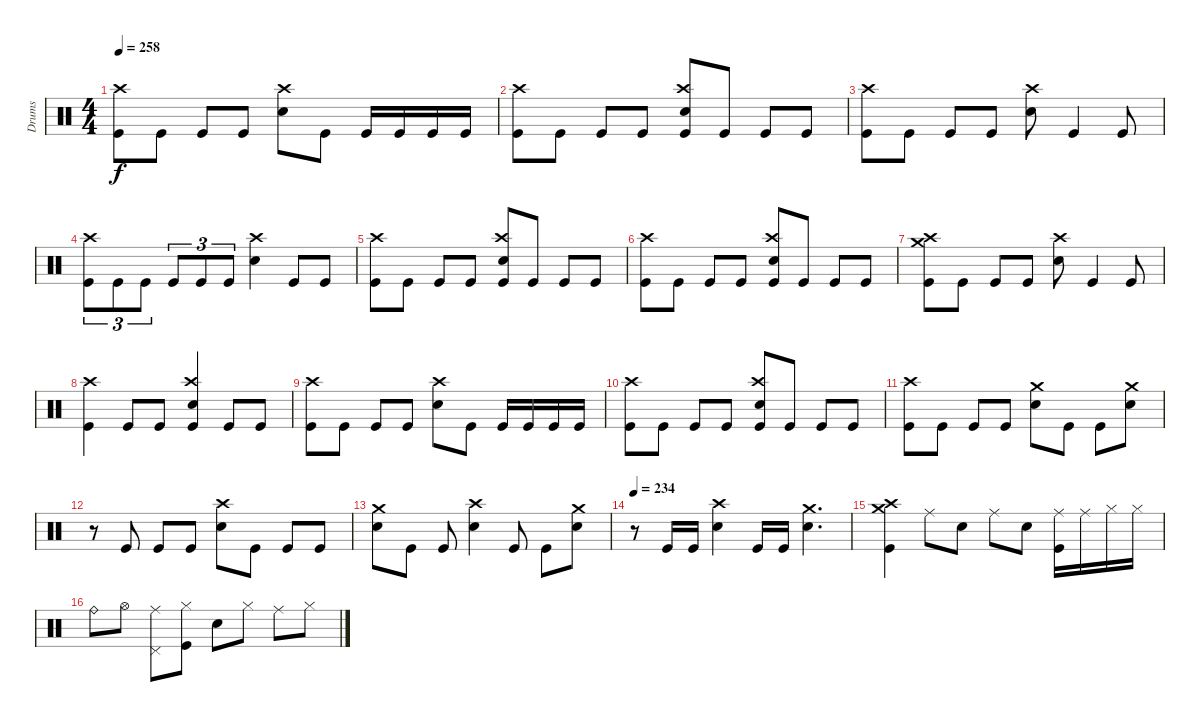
\track ("Drums" "Drums") {instrument percussion}
\staff {score}
\articulation defaults
\ts (4 4)
\tempo 258
\clef neutral
\ks c
("Kick (hit)" "Crash high (hit)").8{dy f} "Kick (hit)".8 "Kick (hit)".8 "Kick (hit)".8 ("Snare (hit) 2" "Crash high (hit)").8 "Kick (hit)".8 "Kick (hit)".16 "Kick (hit)".16 "Kick (hit)".16 "Kick (hit)".16 |
("Kick (hit)" "Crash high (hit)").8 "Kick (hit)".8 "Kick (hit)".8 "Kick (hit)".8 ("Snare (hit) 2" "Kick (hit)" "Crash high (hit)").8 "Kick (hit)".8 "Kick (hit)".8 "Kick (hit)".8 |
("Kick (hit)" "Crash high (hit)").8 "Kick (hit)".8 "Kick (hit)".8 "Kick (hit)".8 ("Snare (hit) 2" "Crash high (hit)").8 "Kick (hit)".4 "Kick (hit)".8 |
("Kick (hit)" "Crash high (hit)").8{tu (3 2)} "Kick (hit)".8{tu (3 2)} "Kick (hit)".8{tu (3 2)} "Kick (hit)".8{tu (3 2)} "Kick (hit)".8{tu (3 2)} "Kick (hit)".8{tu (3 2)} ("Snare (hit) 2" "Crash high (hit)").4 "Kick (hit)".8 "Kick (hit)".8 |
("Kick (hit)" "Crash high (hit)").8 "Kick (hit)".8 "Kick (hit)".8 "Kick (hit)".8 ("Snare (hit) 2" "Kick (hit)" "Crash high (hit)").8 "Kick (hit)".8 "Kick (hit)".8 "Kick (hit)".8 |
("Kick (hit)" "Crash high (hit)").8 "Kick (hit)".8 "Kick (hit)".8 "Kick (hit)".8 ("Snare (hit) 2" "Kick (hit)" "Crash high (hit)").8 "Kick (hit)".8 "Kick (hit)".8 "Kick (hit)".8 |
("Crash medium (hit)" "Kick (hit)" "Crash high (hit)").8 "Kick (hit)".8 "Kick (hit)".8 "Kick (hit)".8 ("Snare (hit) 2" "Crash high (hit)").8 "Kick (hit)".4 "Kick (hit)".8 |
("Kick (hit)" "Crash high (hit)").4 "Kick (hit)".8 "Kick (hit)".8 ("Snare (hit) 2" "Kick (hit)" "Crash high (hit)").4 "Kick (hit)".8 "Kick (hit)".8 |
("Kick (hit)" "Crash high (hit)").8 "Kick (hit)".8 "Kick (hit)".8 "Kick (hit)".8 ("Snare (hit) 2" "Crash high (hit)").8 "Kick (hit)".8 "Kick (hit)".16 "Kick (hit)".16 "Kick (hit)".16 "Kick (hit)".16 |
("Kick (hit)" "Crash high (hit)").8 "Kick (hit)".8 "Kick (hit)".8 "Kick (hit)".8 ("Snare (hit) 2" "Kick (hit)" "Crash high (hit)").8 "Kick (hit)".8 "Kick (hit)".8 "Kick (hit)".8 |
("Kick (hit)" "Crash high (hit)").8 "Kick (hit)".8 "Kick (hit)".8 "Kick (hit)".8 ("Snare (hit) 2" "Crash medium (hit)").8 "Kick (hit)".8 "Kick (hit)".8 ("Snare (hit) 2" "Crash medium (hit)").8 |
r.8 "Kick (hit)".8 "Kick (hit)".8 "Kick (hit)".8 ("Snare (hit) 2" "Crash high (hit)").8 "Kick (hit)".8 "Kick (hit)".8 "Kick (hit)".8 |
("Snare (hit) 2" "Crash medium (hit)").8 "Kick (hit)".8 "Kick (hit)".8 ("Snare (hit) 2" "Crash high (hit)").4 "Kick (hit)".8 "Kick (hit)".8 ("Snare (hit) 2" "Crash medium (hit)").8 |
\tempo 234
r.8 "Kick (hit)".16 "Kick (hit)".16 ("Snare (hit) 2" "Crash high (hit)").4 "Kick (hit)".16 "Kick (hit)".16 ("Snare (hit) 2" "Crash medium (hit)").4{d} |
("Crash medium (hit)" "Kick (hit)" "Crash high (hit)").4 "Ride (middle)".8 "Snare (hit) 2".8 "Ride (middle)".8 "Snare (hit) 2".8 ("Kick (hit)" "Ride (middle)").16 "Ride (middle)".16 "Hi-Hat (closed)".16 "Hi-Hat (closed)".16 |
"Ride (bell)".8 "Hi-Hat (open)".8 ("Pedal Hi-Hat (hit)" "Ride (middle)").8 ("Hi-Hat (closed)" "Kick (hit)").8 "Snare (hit) 2".8 "Hi-Hat (closed)".8 "Ride (middle)".8 "Hi-Hat (closed)".8
